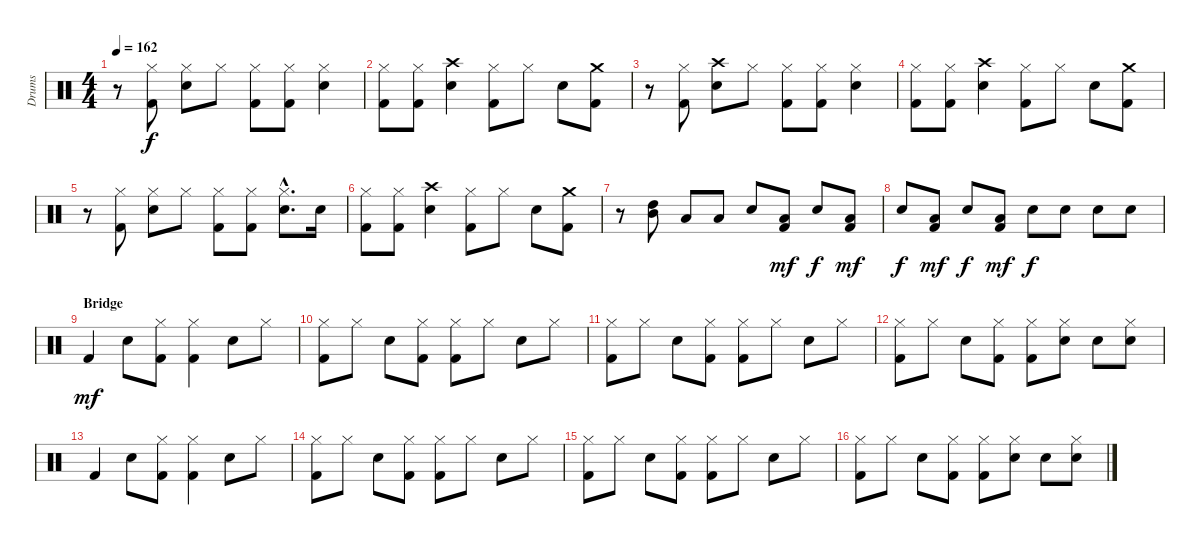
\track ("Drums" "Drums") {instrument percussion}
\staff {score}
\articulation defaults
\ts (4 4)
\tempo 162
\clef neutral
\ks c
r.8{dy f} ("Hi-Hat (closed)" "Kick (hit) 2").8 ("Hi-Hat (closed)" "Snare (hit) 2").8 "Hi-Hat (closed)".8 ("Hi-Hat (closed)" "Kick (hit) 2").8 ("Hi-Hat (closed)" "Kick (hit) 2").8 ("Hi-Hat (closed)" "Snare (hit) 2").4 |
("Hi-Hat (closed)" "Kick (hit) 2").8 ("Hi-Hat (closed)" "Kick (hit) 2").8 ("Crash high (hit)" "Snare (hit) 2").4 ("Hi-Hat (closed)" "Kick (hit) 2").8 "Hi-Hat (closed)".8 "Snare (hit) 2".8 ("Crash medium (hit)" "Kick (hit) 2").8 |
r.8 ("Hi-Hat (closed)" "Kick (hit) 2").8 ("Crash high (hit)" "Snare (hit) 2").8 "Hi-Hat (closed)".8 ("Hi-Hat (closed)" "Kick (hit) 2").8 ("Hi-Hat (closed)" "Kick (hit) 2").8 ("Hi-Hat (closed)" "Snare (hit) 2").4 |
("Hi-Hat (closed)" "Kick (hit) 2").8 ("Hi-Hat (closed)" "Kick (hit) 2").8 ("Crash high (hit)" "Snare (hit) 2").4 ("Hi-Hat (closed)" "Kick (hit) 2").8 "Hi-Hat (closed)".8 "Snare (hit) 2".8 ("Crash medium (hit)" "Kick (hit) 2").8 |
r.8 ("Hi-Hat (closed)" "Kick (hit) 2").8 ("Hi-Hat (closed)" "Snare (hit) 2").8 "Hi-Hat (closed)".8 ("Hi-Hat (closed)" "Kick (hit) 2").8 ("Hi-Hat (closed)" "Kick (hit) 2").8 ("Hi-Hat (closed)"{hac} "Snare (hit) 2"{hac}).8{d} "Snare (hit) 2".16 |
("Hi-Hat (closed)" "Kick (hit) 2").8 ("Hi-Hat (closed)" "Kick (hit) 2").8 ("Crash high (hit)" "Snare (hit) 2").4 ("Hi-Hat (closed)" "Kick (hit) 2").8 "Hi-Hat (closed)".8 "Snare (hit) 2".8 ("Crash medium (hit)" "Kick (hit) 2").8 |
r.8 ("Mid Tom (hit)" "High Tom (hit)").8 "Low Tom (hit)".8 "Low Tom (hit)".8 "Snare (hit) 2".8 ("Low Tom (hit)" "Kick (hit) 2").8{dy mf} "Snare (hit) 2".8{dy f} ("Low Tom (hit)" "Kick (hit) 2").8{dy mf} |
"Snare (hit) 2".8{dy f} ("Low Tom (hit)" "Kick (hit) 2").8{dy mf} "Snare (hit) 2".8{dy f} ("Low Tom (hit)" "Kick (hit) 2").8{dy mf} "Snare (hit) 2".8{dy f} "Snare (hit) 2".8 "Snare (hit) 2".8 "Snare (hit) 2".8 |
\section ("" "Bridge")
"Kick (hit) 2".4{dy mf} "Snare (hit) 2".8 ("Hi-Hat (closed)" "Kick (hit) 2").8 ("Hi-Hat (closed)" "Kick (hit) 2").4 "Snare (hit) 2".8 "Hi-Hat (closed)".8 |
("Hi-Hat (closed)" "Kick (hit) 2").8 "Hi-Hat (closed)".8 "Snare (hit) 2".8 ("Hi-Hat (closed)" "Kick (hit) 2").8 ("Hi-Hat (closed)" "Kick (hit) 2").8 "Hi-Hat (closed)".8 "Snare (hit) 2".8 "Hi-Hat (closed)".8 |
("Hi-Hat (closed)" "Kick (hit) 2").8 "Hi-Hat (closed)".8 "Snare (hit) 2".8 ("Hi-Hat (closed)" "Kick (hit) 2").8 ("Hi-Hat (closed)" "Kick (hit) 2").8 "Hi-Hat (closed)".8 "Snare (hit) 2".8 "Hi-Hat (closed)".8 |
("Hi-Hat (closed)" "Kick (hit) 2").8 "Hi-Hat (closed)".8 "Snare (hit) 2".8 ("Hi-Hat (closed)" "Kick (hit) 2").8 ("Hi-Hat (closed)" "Kick (hit) 2").8 ("Hi-Hat (closed)" "Snare (hit) 2").8 "Snare (hit) 2".8 ("Hi-Hat (closed)" "Snare (hit) 2").8 |
"Kick (hit) 2".4 "Snare (hit) 2".8 ("Hi-Hat (closed)" "Kick (hit) 2").8 ("Hi-Hat (closed)" "Kick (hit) 2").4 "Snare (hit) 2".8 "Hi-Hat (closed)".8 |
("Hi-Hat (closed)" "Kick (hit) 2").8 "Hi-Hat (closed)".8 "Snare (hit) 2".8 ("Hi-Hat (closed)" "Kick (hit) 2").8 ("Hi-Hat (closed)" "Kick (hit) 2").8 "Hi-Hat (closed)".8 "Snare (hit) 2".8 "Hi-Hat (closed)".8 |
("Hi-Hat (closed)" "Kick (hit) 2").8 "Hi-Hat (closed)".8 "Snare (hit) 2".8 ("Hi-Hat (closed)" "Kick (hit) 2").8 ("Hi-Hat (closed)" "Kick (hit) 2").8 "Hi-Hat (closed)".8 "Snare (hit) 2".8 "Hi-Hat (closed)".8 |
("Hi-Hat (closed)" "Kick (hit) 2").8 "Hi-Hat (closed)".8 "Snare (hit) 2".8 ("Hi-Hat (closed)" "Kick (hit) 2").8 ("Hi-Hat (closed)" "Kick (hit) 2").8 ("Hi-Hat (closed)" "Snare (hit) 2").8 "Snare (hit) 2".8 ("Hi-Hat (closed)" "Snare (hit) 2").8
